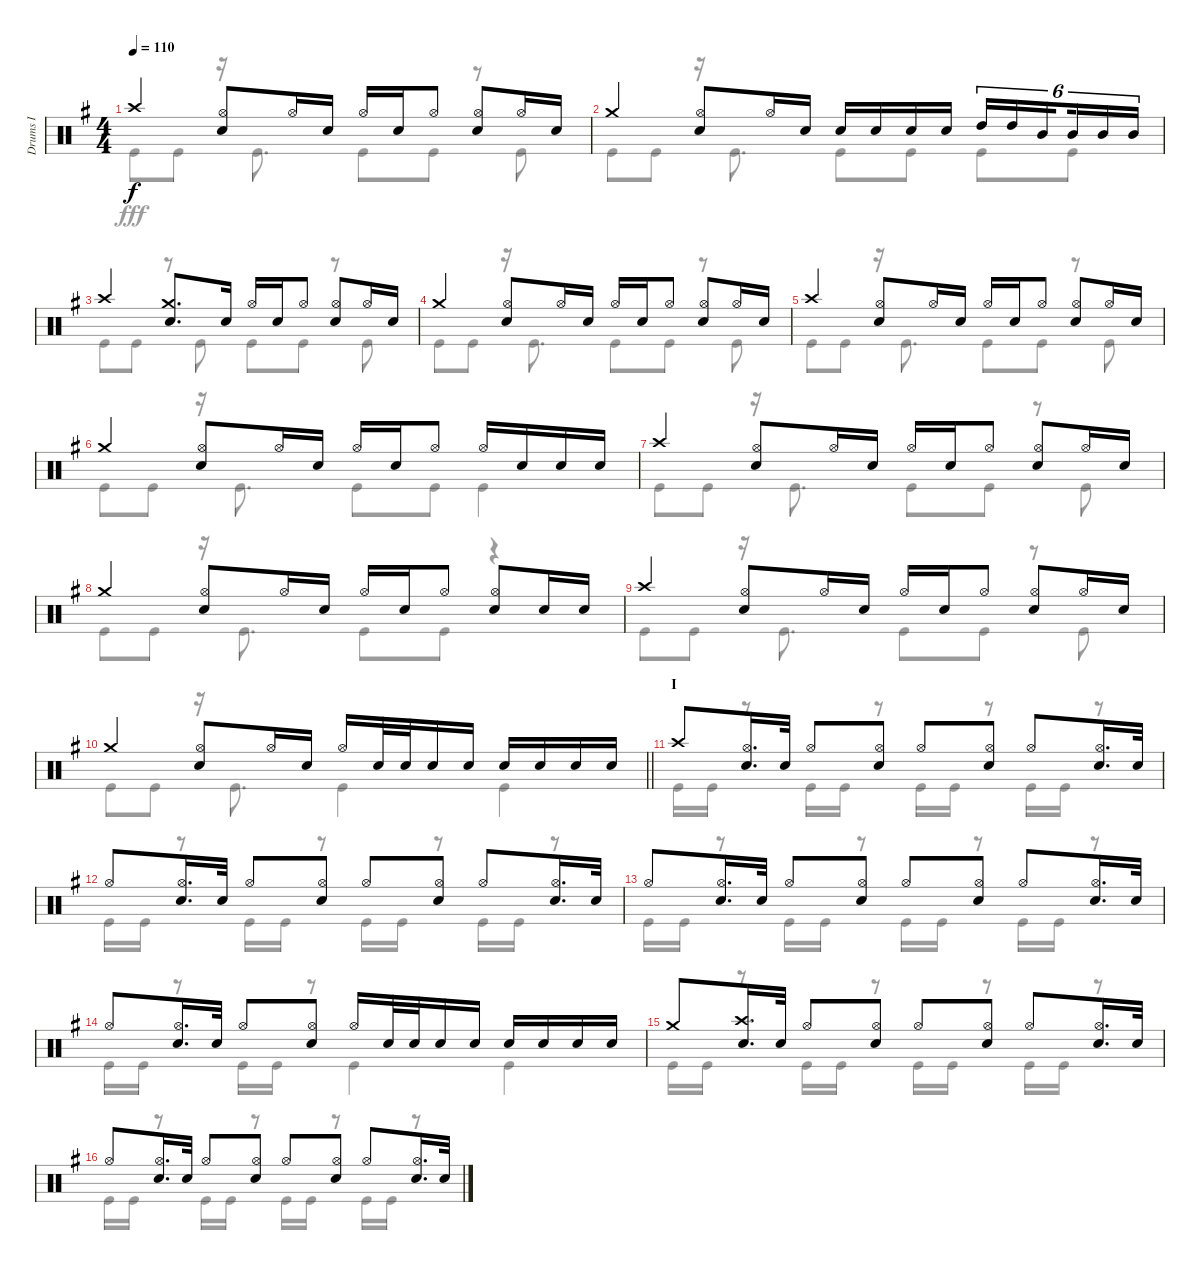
\track ("Drums I" "Drums I") {instrument percussion}
\staff {score}
\articulation defaults
\voice
\ts (4 4)
\tempo 110
\clef neutral
\ks g "Crash high (hit)".4{dy f}
("Hi-Hat (open)" "Snare (hit) 2").8 "Hi-Hat (open)".16 "Snare (hit) 2".16 "Hi-Hat (open)".16 "Snare (hit) 2".16 "Hi-Hat (open)".8 ("Hi-Hat (open)" "Snare (hit) 2").8 "Hi-Hat (open)".16 "Snare (hit) 2".16 |
"Crash medium (hit)".4 ("Hi-Hat (open)" "Snare (hit) 2").8 "Hi-Hat (open)".16 "Snare (hit) 2".16 "Snare (hit) 2".16 "Snare (hit) 2".16 "Snare (hit) 2".16 "Snare (hit) 2".16 "High Tom (hit)".16{tu (6 4)} "High Tom (hit)".16{tu (6 4)} "Mid Tom (hit)".16{tu (6 4) beam splitsecondary} "Mid Tom (hit)".16{tu (6 4)} "Mid Tom (hit)".16{tu (6 4)} "Mid Tom (hit)".16{tu (6 4)} |
"Crash high (hit)".4 ("Crash medium (hit)" "Snare (hit) 2").8{d} "Snare (hit) 2".16 "Hi-Hat (open)".16 "Snare (hit) 2".16 "Hi-Hat (open)".8 ("Hi-Hat (open)" "Snare (hit) 2").8 "Hi-Hat (open)".16 "Snare (hit) 2".16 |
"Crash medium (hit)".4 ("Hi-Hat (open)" "Snare (hit) 2").8 "Hi-Hat (open)".16 "Snare (hit) 2".16 "Hi-Hat (open)".16 "Snare (hit) 2".16 "Hi-Hat (open)".8 ("Hi-Hat (open)" "Snare (hit) 2").8 "Hi-Hat (open)".16 "Snare (hit) 2".16 |
"Crash high (hit)".4 ("Hi-Hat (open)" "Snare (hit) 2").8 "Hi-Hat (open)".16 "Snare (hit) 2".16 "Hi-Hat (open)".16 "Snare (hit) 2".16 "Hi-Hat (open)".8 ("Hi-Hat (open)" "Snare (hit) 2").8 "Hi-Hat (open)".16 "Snare (hit) 2".16 |
"Crash medium (hit)".4 ("Hi-Hat (open)" "Snare (hit) 2").8 "Hi-Hat (open)".16 "Snare (hit) 2".16 "Hi-Hat (open)".16 "Snare (hit) 2".16 "Hi-Hat (open)".8 "Hi-Hat (open)".16 "Snare (hit) 2".16 "Snare (hit) 2".16 "Snare (hit) 2".16 |
"Crash high (hit)".4 ("Hi-Hat (open)" "Snare (hit) 2").8 "Hi-Hat (open)".16 "Snare (hit) 2".16 "Hi-Hat (open)".16 "Snare (hit) 2".16 "Hi-Hat (open)".8 ("Hi-Hat (open)" "Snare (hit) 2").8 "Hi-Hat (open)".16 "Snare (hit) 2".16 |
"Crash medium (hit)".4 ("Hi-Hat (open)" "Snare (hit) 2").8 "Hi-Hat (open)".16 "Snare (hit) 2".16 "Hi-Hat (open)".16 "Snare (hit) 2".16 "Hi-Hat (open)".8 ("Hi-Hat (open)" "Snare (hit) 2").8 "Snare (hit) 2".16 "Snare (hit) 2".16 |
"Crash high (hit)".4 ("Hi-Hat (open)" "Snare (hit) 2").8 "Hi-Hat (open)".16 "Snare (hit) 2".16 "Hi-Hat (open)".16 "Snare (hit) 2".16 "Hi-Hat (open)".8 ("Hi-Hat (open)" "Snare (hit) 2").8 "Hi-Hat (open)".16 "Snare (hit) 2".16 |
\barLineRight lightlight "Crash medium (hit)".4
("Hi-Hat (open)" "Snare (hit) 2").8 "Hi-Hat (open)".16 "Snare (hit) 2".16 "Hi-Hat (open)".16 "Snare (hit) 2".32 "Snare (hit) 2".32 "Snare (hit) 2".16 "Snare (hit) 2".16 "Snare (hit) 2".16 "Snare (hit) 2".16 "Snare (hit) 2".16 "Snare (hit) 2".16 |
\section ("" "I")
"Crash high (hit)".8 ("Hi-Hat (open)" "Snare (hit) 2").16{d} "Snare (hit) 2".32 "Hi-Hat (open)".8 ("Hi-Hat (open)" "Snare (hit) 2").8 "Hi-Hat (open)".8 ("Hi-Hat (open)" "Snare (hit) 2").8 "Hi-Hat (open)".8 ("Hi-Hat (open)" "Snare (hit) 2").16{d} "Snare (hit) 2".32 |
"Hi-Hat (open)".8 ("Hi-Hat (open)" "Snare (hit) 2").16{d} "Snare (hit) 2".32 "Hi-Hat (open)".8 ("Hi-Hat (open)" "Snare (hit) 2").8 "Hi-Hat (open)".8 ("Hi-Hat (open)" "Snare (hit) 2").8 "Hi-Hat (open)".8 ("Hi-Hat (open)" "Snare (hit) 2").16{d} "Snare (hit) 2".32 |
"Hi-Hat (open)".8 ("Hi-Hat (open)" "Snare (hit) 2").16{d} "Snare (hit) 2".32 "Hi-Hat (open)".8 ("Hi-Hat (open)" "Snare (hit) 2").8 "Hi-Hat (open)".8 ("Hi-Hat (open)" "Snare (hit) 2").8 "Hi-Hat (open)".8 ("Hi-Hat (open)" "Snare (hit) 2").16{d} "Snare (hit) 2".32 |
"Hi-Hat (open)".8 ("Hi-Hat (open)" "Snare (hit) 2").16{d} "Snare (hit) 2".32 "Hi-Hat (open)".8 ("Hi-Hat (open)" "Snare (hit) 2").8 "Hi-Hat (open)".16 "Snare (hit) 2".32 "Snare (hit) 2".32 "Snare (hit) 2".16 "Snare (hit) 2".16 "Snare (hit) 2".16 "Snare (hit) 2".16 "Snare (hit) 2".16 "Snare (hit) 2".16 |
"Crash medium (hit)".8 ("Crash high (hit)" "Snare (hit) 2").16{d} "Snare (hit) 2".32 "Hi-Hat (open)".8 ("Hi-Hat (open)" "Snare (hit) 2").8 "Hi-Hat (open)".8 ("Hi-Hat (open)" "Snare (hit) 2").8 "Hi-Hat (open)".8 ("Hi-Hat (open)" "Snare (hit) 2").16{d} "Snare (hit) 2".32 |
"Hi-Hat (open)".8 ("Hi-Hat (open)" "Snare (hit) 2").16{d} "Snare (hit) 2".32 "Hi-Hat (open)".8 ("Hi-Hat (open)" "Snare (hit) 2").8 "Hi-Hat (open)".8 ("Hi-Hat (open)" "Snare (hit) 2").8 "Hi-Hat (open)".8 ("Hi-Hat (open)" "Snare (hit) 2").16{d} "Snare (hit) 2".32
\voice
\clef neutral
\ottava regular
\simile none
\ks g "Kick (hit)".8{dy fff} "Kick (hit)".8
r.16 "Kick (hit)".8{d} "Kick (hit)".8 "Kick (hit)".8 r.8 "Kick (hit)".8 |
"Kick (hit)".8 "Kick (hit)".8 r.16 "Kick (hit)".8{d} "Kick (hit)".8 "Kick (hit)".8 "Kick (hit)".8 "Kick (hit)".8 |
"Kick (hit)".8 "Kick (hit)".8 r.8 "Kick (hit)".8 "Kick (hit)".8 "Kick (hit)".8 r.8 "Kick (hit)".8 |
"Kick (hit)".8 "Kick (hit)".8 r.16 "Kick (hit)".8{d} "Kick (hit)".8 "Kick (hit)".8 r.8 "Kick (hit)".8 |
"Kick (hit)".8 "Kick (hit)".8 r.16 "Kick (hit)".8{d} "Kick (hit)".8 "Kick (hit)".8 r.8 "Kick (hit)".8 |
"Kick (hit)".8 "Kick (hit)".8 r.16 "Kick (hit)".8{d} "Kick (hit)".8 "Kick (hit)".8 "Kick (hit)".4 |
"Kick (hit)".8 "Kick (hit)".8 r.16 "Kick (hit)".8{d} "Kick (hit)".8 "Kick (hit)".8 r.8 "Kick (hit)".8 |
"Kick (hit)".8 "Kick (hit)".8 r.16 "Kick (hit)".8{d} "Kick (hit)".8 "Kick (hit)".8 r.4 |
"Kick (hit)".8 "Kick (hit)".8 r.16 "Kick (hit)".8{d} "Kick (hit)".8 "Kick (hit)".8 r.8 "Kick (hit)".8 |
\barLineRight lightlight "Kick (hit)".8 "Kick (hit)".8
r.16 "Kick (hit)".8{d} "Kick (hit)".4 "Kick (hit)".4 |
"Kick (hit)".16 "Kick (hit)".16 r.8 "Kick (hit)".16 "Kick (hit)".16 r.8 "Kick (hit)".16 "Kick (hit)".16 r.8 "Kick (hit)".16 "Kick (hit)".16 r.8 |
"Kick (hit)".16 "Kick (hit)".16 r.8 "Kick (hit)".16 "Kick (hit)".16 r.8 "Kick (hit)".16 "Kick (hit)".16 r.8 "Kick (hit)".16 "Kick (hit)".16 r.8 |
"Kick (hit)".16 "Kick (hit)".16 r.8 "Kick (hit)".16 "Kick (hit)".16 r.8 "Kick (hit)".16 "Kick (hit)".16 r.8 "Kick (hit)".16 "Kick (hit)".16 r.8 |
"Kick (hit)".16 "Kick (hit)".16 r.8 "Kick (hit)".16 "Kick (hit)".16 r.8 "Kick (hit)".4 "Kick (hit)".4 |
"Kick (hit)".16 "Kick (hit)".16 r.8 "Kick (hit)".16 "Kick (hit)".16 r.8 "Kick (hit)".16 "Kick (hit)".16 r.8 "Kick (hit)".16 "Kick (hit)".16 r.8 |
"Kick (hit)".16 "Kick (hit)".16 r.8 "Kick (hit)".16 "Kick (hit)".16 r.8 "Kick (hit)".16 "Kick (hit)".16 r.8 "Kick (hit)".16 "Kick (hit)".16 r.8
